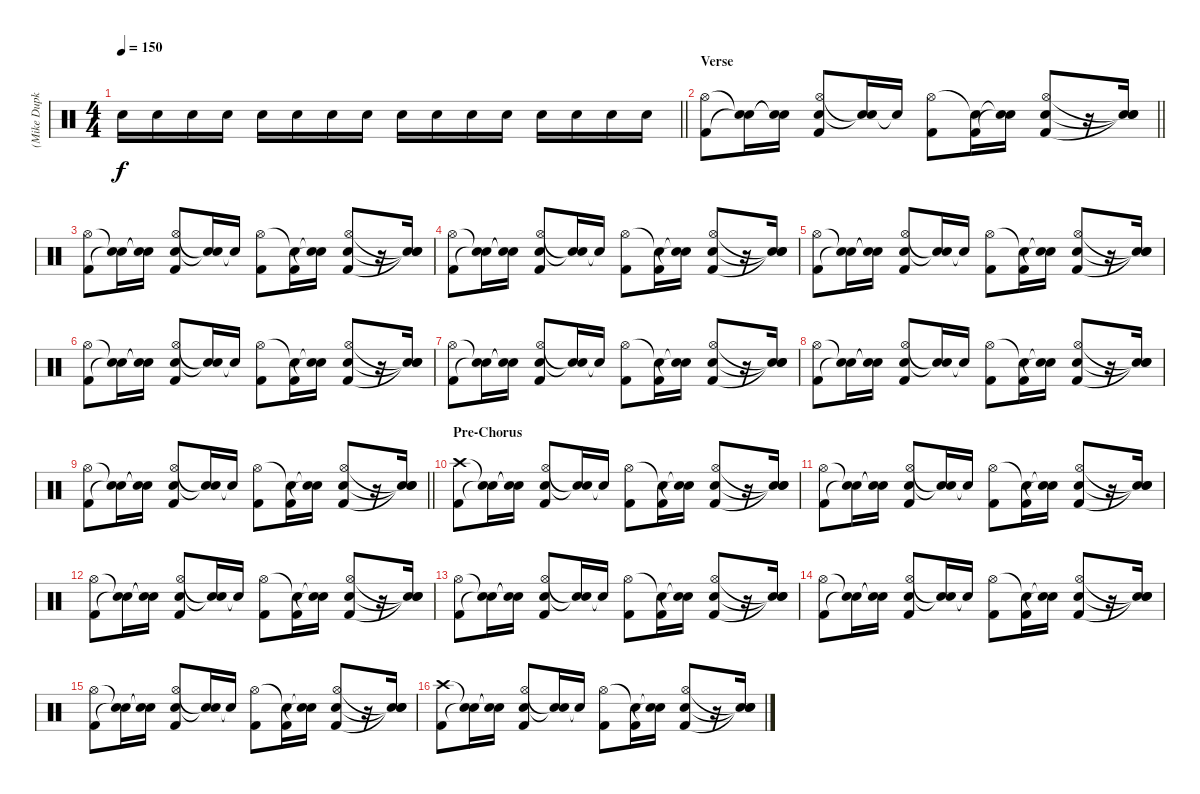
\track ("(Mike Dupke) Drums" "(Mike Dupk") {instrument percussion}
\staff {score}
\articulation defaults
\ts (4 4)
\tempo 150
\clef neutral
\barLineRight lightlight
\ks c "Snare (hit) 2".16{dy f} "Snare (hit) 2".16 "Snare (hit) 2".16 "Snare (hit) 2".16 "Snare (hit) 2".16 "Snare (hit) 2".16 "Snare (hit) 2".16 "Snare (hit) 2".16 "Snare (hit) 2".16 "Snare (hit) 2".16 "Snare (hit) 2".16 "Snare (hit) 2".16 "Snare (hit) 2".16 "Snare (hit) 2".16 "Snare (hit) 2".16 "Snare (hit) 2".16
|
\section ("" "Verse")
\barLineRight lightlight
("Hi-Hat (open)" "Kick (hit) 2").8 ("Snare (hit)"{t} "Snare (hit)"{t}).16 ("Snare (hit)"{t} "Snare (hit)"{t}).16 ("Hi-Hat (open)" "Snare (hit) 2" "Kick (hit) 2").8 ("Snare (hit)"{t} "Snare (hit)"{t}).16 "Snare (hit)"{t}.16 ("Hi-Hat (open)" "Kick (hit) 2").8 ("Snare (hit)"{t} "Kick (hit) 2").16 ("Snare (hit)"{t} "Snare (hit)"{t}).16 ("Hi-Hat (open)" "Snare (hit) 2" "Kick (hit) 2").8 r.16 ("Snare (hit)"{t} "Snare (hit)"{t} "Snare (hit)"{t}).16 |
\section ("" "")
("Hi-Hat (open)" "Kick (hit) 2").8 ("Snare (hit)"{t} "Snare (hit)"{t}).16 ("Snare (hit)"{t} "Snare (hit)"{t}).16 ("Hi-Hat (open)" "Snare (hit) 2" "Kick (hit) 2").8 ("Snare (hit)"{t} "Snare (hit)"{t}).16 "Snare (hit)"{t}.16 ("Hi-Hat (open)" "Kick (hit) 2").8 ("Snare (hit)"{t} "Kick (hit) 2").16 ("Snare (hit)"{t} "Snare (hit)"{t}).16 ("Hi-Hat (open)" "Snare (hit) 2" "Kick (hit) 2").8 r.16 ("Snare (hit)"{t} "Snare (hit)"{t} "Snare (hit)"{t}).16 |
("Hi-Hat (open)" "Kick (hit) 2").8 ("Snare (hit)"{t} "Snare (hit)"{t}).16 ("Snare (hit)"{t} "Snare (hit)"{t}).16 ("Hi-Hat (open)" "Snare (hit) 2" "Kick (hit) 2").8 ("Snare (hit)"{t} "Snare (hit)"{t}).16 "Snare (hit)"{t}.16 ("Hi-Hat (open)" "Kick (hit) 2").8 ("Snare (hit)"{t} "Kick (hit) 2").16 ("Snare (hit)"{t} "Snare (hit)"{t}).16 ("Hi-Hat (open)" "Snare (hit) 2" "Kick (hit) 2").8 r.16 ("Snare (hit)"{t} "Snare (hit)"{t} "Snare (hit)"{t}).16 |
("Hi-Hat (open)" "Kick (hit) 2").8 ("Snare (hit)"{t} "Snare (hit)"{t}).16 ("Snare (hit)"{t} "Snare (hit)"{t}).16 ("Hi-Hat (open)" "Snare (hit) 2" "Kick (hit) 2").8 ("Snare (hit)"{t} "Snare (hit)"{t}).16 "Snare (hit)"{t}.16 ("Hi-Hat (open)" "Kick (hit) 2").8 ("Snare (hit)"{t} "Kick (hit) 2").16 ("Snare (hit)"{t} "Snare (hit)"{t}).16 ("Hi-Hat (open)" "Snare (hit) 2" "Kick (hit) 2").8 r.16 ("Snare (hit)"{t} "Snare (hit)"{t} "Snare (hit)"{t}).16 |
("Hi-Hat (open)" "Kick (hit) 2").8 ("Snare (hit)"{t} "Snare (hit)"{t}).16 ("Snare (hit)"{t} "Snare (hit)"{t}).16 ("Hi-Hat (open)" "Snare (hit) 2" "Kick (hit) 2").8 ("Snare (hit)"{t} "Snare (hit)"{t}).16 "Snare (hit)"{t}.16 ("Hi-Hat (open)" "Kick (hit) 2").8 ("Snare (hit)"{t} "Kick (hit) 2").16 ("Snare (hit)"{t} "Snare (hit)"{t}).16 ("Hi-Hat (open)" "Snare (hit) 2" "Kick (hit) 2").8 r.16 ("Snare (hit)"{t} "Snare (hit)"{t} "Snare (hit)"{t}).16 |
("Hi-Hat (open)" "Kick (hit) 2").8 ("Snare (hit)"{t} "Snare (hit)"{t}).16 ("Snare (hit)"{t} "Snare (hit)"{t}).16 ("Hi-Hat (open)" "Snare (hit) 2" "Kick (hit) 2").8 ("Snare (hit)"{t} "Snare (hit)"{t}).16 "Snare (hit)"{t}.16 ("Hi-Hat (open)" "Kick (hit) 2").8 ("Snare (hit)"{t} "Kick (hit) 2").16 ("Snare (hit)"{t} "Snare (hit)"{t}).16 ("Hi-Hat (open)" "Snare (hit) 2" "Kick (hit) 2").8 r.16 ("Snare (hit)"{t} "Snare (hit)"{t} "Snare (hit)"{t}).16 |
("Hi-Hat (open)" "Kick (hit) 2").8 ("Snare (hit)"{t} "Snare (hit)"{t}).16 ("Snare (hit)"{t} "Snare (hit)"{t}).16 ("Hi-Hat (open)" "Snare (hit) 2" "Kick (hit) 2").8 ("Snare (hit)"{t} "Snare (hit)"{t}).16 "Snare (hit)"{t}.16 ("Hi-Hat (open)" "Kick (hit) 2").8 ("Snare (hit)"{t} "Kick (hit) 2").16 ("Snare (hit)"{t} "Snare (hit)"{t}).16 ("Hi-Hat (open)" "Snare (hit) 2" "Kick (hit) 2").8 r.16 ("Snare (hit)"{t} "Snare (hit)"{t} "Snare (hit)"{t}).16 |
\barLineRight lightlight
("Hi-Hat (open)" "Kick (hit) 2").8 ("Snare (hit)"{t} "Snare (hit)"{t}).16 ("Snare (hit)"{t} "Snare (hit)"{t}).16 ("Hi-Hat (open)" "Snare (hit) 2" "Kick (hit) 2").8 ("Snare (hit)"{t} "Snare (hit)"{t}).16 "Snare (hit)"{t}.16 ("Hi-Hat (open)" "Kick (hit) 2").8 ("Snare (hit)"{t} "Kick (hit) 2").16 ("Snare (hit)"{t} "Snare (hit)"{t}).16 ("Hi-Hat (open)" "Snare (hit) 2" "Kick (hit) 2").8 r.16 ("Snare (hit)"{t} "Snare (hit)"{t} "Snare (hit)"{t}).16 |
\section ("" "Pre-Chorus")
("Crash high (hit)" "Kick (hit) 2").8 ("Snare (hit)"{t} "Snare (hit)"{t}).16 ("Snare (hit)"{t} "Snare (hit)"{t}).16 ("Hi-Hat (open)" "Snare (hit) 2" "Kick (hit) 2").8 ("Snare (hit)"{t} "Snare (hit)"{t}).16 "Snare (hit)"{t}.16 ("Hi-Hat (open)" "Kick (hit) 2").8 ("Snare (hit)"{t} "Kick (hit) 2").16 ("Snare (hit)"{t} "Snare (hit)"{t}).16 ("Hi-Hat (open)" "Snare (hit) 2" "Kick (hit) 2").8 r.16 ("Snare (hit)"{t} "Snare (hit)"{t} "Snare (hit)"{t}).16 |
("Hi-Hat (open)" "Kick (hit) 2").8 ("Snare (hit)"{t} "Snare (hit)"{t}).16 ("Snare (hit)"{t} "Snare (hit)"{t}).16 ("Hi-Hat (open)" "Snare (hit) 2" "Kick (hit) 2").8 ("Snare (hit)"{t} "Snare (hit)"{t}).16 "Snare (hit)"{t}.16 ("Hi-Hat (open)" "Kick (hit) 2").8 ("Snare (hit)"{t} "Kick (hit) 2").16 ("Snare (hit)"{t} "Snare (hit)"{t}).16 ("Hi-Hat (open)" "Snare (hit) 2" "Kick (hit) 2").8 r.16 ("Snare (hit)"{t} "Snare (hit)"{t} "Snare (hit)"{t}).16 |
("Hi-Hat (open)" "Kick (hit) 2").8 ("Snare (hit)"{t} "Snare (hit)"{t}).16 ("Snare (hit)"{t} "Snare (hit)"{t}).16 ("Hi-Hat (open)" "Snare (hit) 2" "Kick (hit) 2").8 ("Snare (hit)"{t} "Snare (hit)"{t}).16 "Snare (hit)"{t}.16 ("Hi-Hat (open)" "Kick (hit) 2").8 ("Snare (hit)"{t} "Kick (hit) 2").16 ("Snare (hit)"{t} "Snare (hit)"{t}).16 ("Hi-Hat (open)" "Snare (hit) 2" "Kick (hit) 2").8 r.16 ("Snare (hit)"{t} "Snare (hit)"{t} "Snare (hit)"{t}).16 |
("Hi-Hat (open)" "Kick (hit) 2").8 ("Snare (hit)"{t} "Snare (hit)"{t}).16 ("Snare (hit)"{t} "Snare (hit)"{t}).16 ("Hi-Hat (open)" "Snare (hit) 2" "Kick (hit) 2").8 ("Snare (hit)"{t} "Snare (hit)"{t}).16 "Snare (hit)"{t}.16 ("Hi-Hat (open)" "Kick (hit) 2").8 ("Snare (hit)"{t} "Kick (hit) 2").16 ("Snare (hit)"{t} "Snare (hit)"{t}).16 ("Hi-Hat (open)" "Snare (hit) 2" "Kick (hit) 2").8 r.16 ("Snare (hit)"{t} "Snare (hit)"{t} "Snare (hit)"{t}).16 |
("Hi-Hat (open)" "Kick (hit) 2").8 ("Snare (hit)"{t} "Snare (hit)"{t}).16 ("Snare (hit)"{t} "Snare (hit)"{t}).16 ("Hi-Hat (open)" "Snare (hit) 2" "Kick (hit) 2").8 ("Snare (hit)"{t} "Snare (hit)"{t}).16 "Snare (hit)"{t}.16 ("Hi-Hat (open)" "Kick (hit) 2").8 ("Snare (hit)"{t} "Kick (hit) 2").16 ("Snare (hit)"{t} "Snare (hit)"{t}).16 ("Hi-Hat (open)" "Snare (hit) 2" "Kick (hit) 2").8 r.16 ("Snare (hit)"{t} "Snare (hit)"{t} "Snare (hit)"{t}).16 |
("Hi-Hat (open)" "Kick (hit) 2").8 ("Snare (hit)"{t} "Snare (hit)"{t}).16 ("Snare (hit)"{t} "Snare (hit)"{t}).16 ("Hi-Hat (open)" "Snare (hit) 2" "Kick (hit) 2").8 ("Snare (hit)"{t} "Snare (hit)"{t}).16 "Snare (hit)"{t}.16 ("Hi-Hat (open)" "Kick (hit) 2").8 ("Snare (hit)"{t} "Kick (hit) 2").16 ("Snare (hit)"{t} "Snare (hit)"{t}).16 ("Hi-Hat (open)" "Snare (hit) 2" "Kick (hit) 2").8 r.16 ("Snare (hit)"{t} "Snare (hit)"{t} "Snare (hit)"{t}).16 |
("Crash high (hit)" "Kick (hit) 2").8 ("Snare (hit)"{t} "Snare (hit)"{t}).16 ("Snare (hit)"{t} "Snare (hit)"{t}).16 ("Hi-Hat (open)" "Snare (hit) 2" "Kick (hit) 2").8 ("Snare (hit)"{t} "Snare (hit)"{t}).16 "Snare (hit)"{t}.16 ("Hi-Hat (open)" "Kick (hit) 2").8 ("Snare (hit)"{t} "Kick (hit) 2").16 ("Snare (hit)"{t} "Snare (hit)"{t}).16 ("Hi-Hat (open)" "Snare (hit) 2" "Kick (hit) 2").8 r.16 ("Snare (hit)"{t} "Snare (hit)"{t} "Snare (hit)"{t}).16
